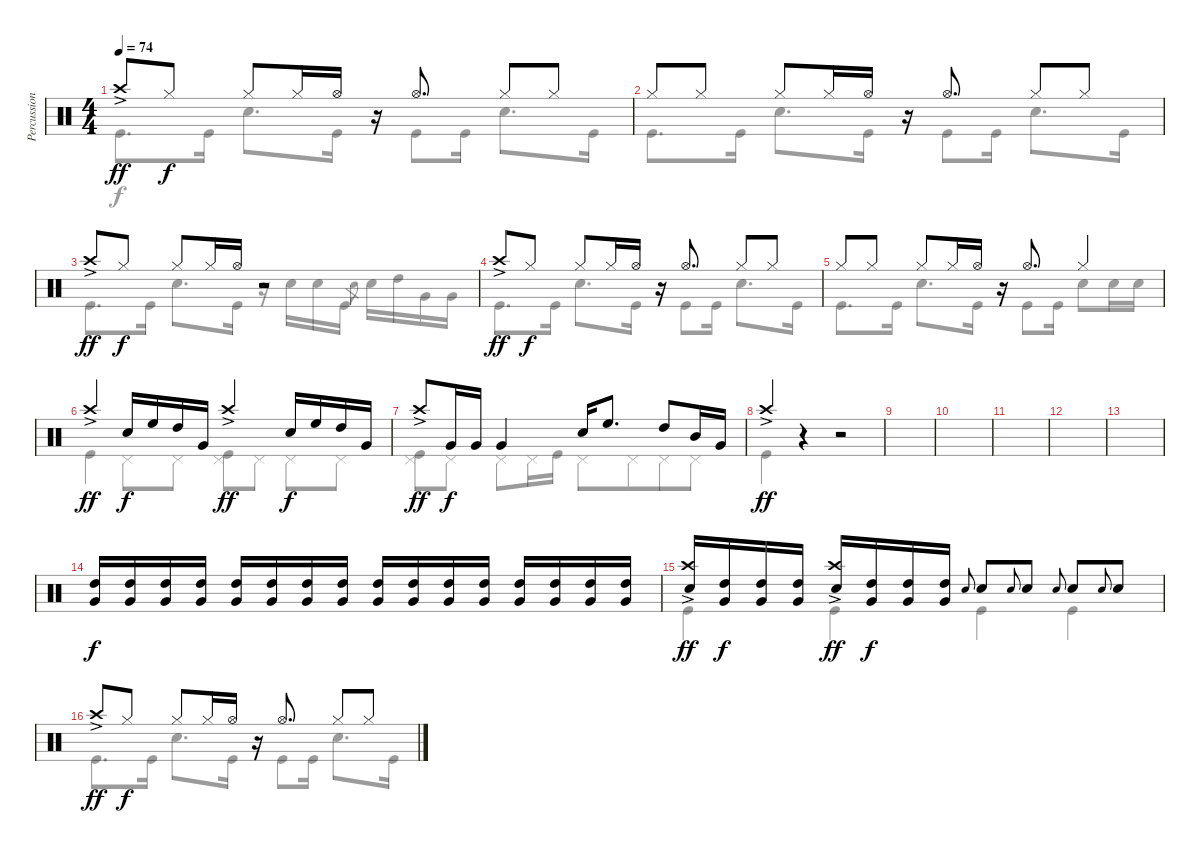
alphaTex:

\track ("Percussion" "Percussion") {instrument percussion}
\staff {score}
\articulation defaults
\voice
\ts (4 4)
\tempo 74
\clef neutral
\ks c "Crash high (hit)"{ac}.8{dy ff beam Up} "Hi-Hat (closed)".8{dy f beam Up} "Hi-Hat (closed)".8{beam Up} "Hi-Hat (closed)".16{beam Up} "Hi-Hat (open)".16{beam Up}
r.16 "Hi-Hat (open)".8{d beam Up beam split} "Hi-Hat (closed)".8{beam Up beam merge} "Hi-Hat (closed)".8{beam Up} |
"Hi-Hat (closed)".8{beam Up} "Hi-Hat (closed)".8{beam Up} "Hi-Hat (closed)".8{beam Up} "Hi-Hat (closed)".16{beam Up} "Hi-Hat (open)".16{beam Up} r.16 "Hi-Hat (open)".8{d beam Up beam split} "Hi-Hat (closed)".8{beam Up beam merge} "Hi-Hat (closed)".8{beam Up} |
"Crash high (hit)"{ac}.8{dy ff beam Up} "Hi-Hat (closed)".8{dy f beam Up beam split} "Hi-Hat (closed)".8{beam Up} "Hi-Hat (closed)".16{beam Up} "Hi-Hat (open)".16{beam Up} r.2 |
"Crash high (hit)"{ac}.8{dy ff beam Up} "Hi-Hat (closed)".8{dy f beam Up} "Hi-Hat (closed)".8{beam Up} "Hi-Hat (closed)".16{beam Up} "Hi-Hat (open)".16{beam Up} r.16 "Hi-Hat (open)".8{d beam Up beam split} "Hi-Hat (closed)".8{beam Up beam merge} "Hi-Hat (closed)".8{beam Up} |
"Hi-Hat (closed)".8{beam Up} "Hi-Hat (closed)".8{beam Up} "Hi-Hat (closed)".8{beam Up} "Hi-Hat (closed)".16{beam Up} "Hi-Hat (open)".16{beam Up} r.16 "Hi-Hat (open)".8{d beam Up} "Hi-Hat (closed)".4{beam Up} |
"Crash high (hit)"{ac}.4{dy ff beam Up} "Snare (hit) 2".16{dy f beam Up} "High Floor Tom (hit)".16{beam Up} "High Tom (hit)".16{beam Up} "Very Low Tom (hit)".16{beam Up} "Crash high (hit)"{ac}.4{dy ff beam Up} "Snare (hit) 2".16{dy f beam Up} "High Floor Tom (hit)".16{beam Up} "High Tom (hit)".16{beam Up} "Very Low Tom (hit)".16{beam Up} |
"Crash high (hit)"{ac}.8{dy ff beam Up} "Very Low Tom (hit)".16{dy f beam Up} "Very Low Tom (hit)".16{beam Up} "Very Low Tom (hit)".4 "Snare (hit) 2".16{beam Up} "High Floor Tom (hit)".8{d beam Up} "High Tom (hit)".8{beam Up} "Mid Tom (hit)".16{beam Up} "Very Low Tom (hit)".16{beam Up} |
"Crash high (hit)"{ac}.4{dy ff} r.4 r.2 |
|
|
|
|
|
("High Tom (hit)" "Very Low Tom (hit)").16{dy f volume 14 beam Up} ("High Tom (hit)" "Very Low Tom (hit)").16{beam Up} ("High Tom (hit)" "Very Low Tom (hit)").16{beam Up} ("High Tom (hit)" "Very Low Tom (hit)").16{beam Up} ("High Tom (hit)" "Very Low Tom (hit)").16{beam Up} ("High Tom (hit)" "Very Low Tom (hit)").16{beam Up} ("High Tom (hit)" "Very Low Tom (hit)").16{beam Up} ("High Tom (hit)" "Very Low Tom (hit)").16{beam Up} ("High Tom (hit)" "Very Low Tom (hit)").16{beam Up} ("High Tom (hit)" "Very Low Tom (hit)").16{beam Up} ("High Tom (hit)" "Very Low Tom (hit)").16{beam Up} ("High Tom (hit)" "Very Low Tom (hit)").16{beam Up} ("High Tom (hit)" "Very Low Tom (hit)").16{beam Up} ("High Tom (hit)" "Very Low Tom (hit)").16{beam Up} ("High Tom (hit)" "Very Low Tom (hit)").16{beam Up} ("High Tom (hit)" "Very Low Tom (hit)").16{beam Up} |
("Crash high (hit)"{ac} "Snare (hit) 2").16{dy ff beam Up} ("High Tom (hit)" "Very Low Tom (hit)").16{dy f beam Up} ("High Tom (hit)" "Very Low Tom (hit)").16{beam Up} ("High Tom (hit)" "Very Low Tom (hit)").16{beam Up} ("Crash high (hit)"{ac} "Snare (hit) 2").16{dy ff beam Up} ("High Tom (hit)" "Very Low Tom (hit)").16{dy f beam Up} ("High Tom (hit)" "Very Low Tom (hit)").16{beam Up} ("High Tom (hit)" "Very Low Tom (hit)").16{beam Up} "Snare (hit) 2"{h}.8{gr onbeat} "Snare (hit) 2".8 "Snare (hit) 2"{h}.8{gr onbeat} "Snare (hit) 2".8 "Snare (hit) 2"{h}.8{gr onbeat} "Snare (hit) 2".8 "Snare (hit) 2"{h}.8{gr onbeat} "Snare (hit) 2".8 |
"Crash high (hit)"{ac}.8{dy ff beam Up} "Hi-Hat (closed)".8{dy f beam Up} "Hi-Hat (closed)".8{beam Up} "Hi-Hat (closed)".16{beam Up} "Hi-Hat (open)".16{beam Up} r.16 "Hi-Hat (open)".8{d beam Up beam split} "Hi-Hat (closed)".8{beam Up beam merge} "Hi-Hat (closed)".8{beam Up}
\voice
\clef neutral
\ottava regular
\simile none
\ks c "Kick (hit)".8{d dy f} "Kick (hit)".16 "Snare (hit) 2".8{d} "Kick (hit)".16
r.16 "Kick (hit)".8 "Kick (hit)".16 "Snare (hit) 2".8{d} "Kick (hit)".16 |
"Kick (hit)".8{d} "Kick (hit)".16 "Snare (hit) 2".8{d} "Kick (hit)".16 r.16 "Kick (hit)".8 "Kick (hit)".16 "Snare (hit) 2".8{d} "Kick (hit)".16 |
"Kick (hit)".8{d} "Kick (hit)".16 "Snare (hit) 2".8{d} "Kick (hit)".16 r.16 "Snare (hit) 2".16 "Snare (hit) 2".16 "Kick (hit)".16 "Snare (hit) 2"{h}.8{gr} "Snare (hit) 2".16 "High Tom (hit)".16 "Very Low Tom (hit)".16 "Very Low Tom (hit)".16 |
"Kick (hit)".8{d} "Kick (hit)".16 "Snare (hit) 2".8{d} "Kick (hit)".16 r.16 "Kick (hit)".8 "Kick (hit)".16 "Snare (hit) 2".8{d} "Kick (hit)".16 |
"Kick (hit)".8{d} "Kick (hit)".16 "Snare (hit) 2".8{d} "Kick (hit)".16 r.16 "Kick (hit)".8 "Kick (hit)".16 "Snare (hit) 2".8 "Snare (hit) 2".16 "Snare (hit) 2".16 |
"Kick (hit)".4 "Pedal Hi-Hat (hit)".8 "Pedal Hi-Hat (hit)".8 ("Kick (hit)" "Pedal Hi-Hat (hit)").8 "Pedal Hi-Hat (hit)".8 "Pedal Hi-Hat (hit)".8 "Pedal Hi-Hat (hit)".8 |
("Kick (hit)" "Pedal Hi-Hat (hit)").8 "Pedal Hi-Hat (hit)".8 "Pedal Hi-Hat (hit)".8 "Pedal Hi-Hat (hit)".16 "Kick (hit)".16 "Pedal Hi-Hat (hit)".8 "Pedal Hi-Hat (hit)".8{beam merge} "Pedal Hi-Hat (hit)".8 "Pedal Hi-Hat (hit)".8 |
"Kick (hit)".4 r.4 r.2 |
|
|
|
|
|
|
"Kick (hit)".4 "Kick (hit)".4 "Kick (hit)".4 "Kick (hit)".4 |
"Kick (hit)".8{d} "Kick (hit)".16 "Snare (hit) 2".8{d} "Kick (hit)".16 r.16 "Kick (hit)".8 "Kick (hit)".16 "Snare (hit) 2".8{d} "Kick (hit)".16
